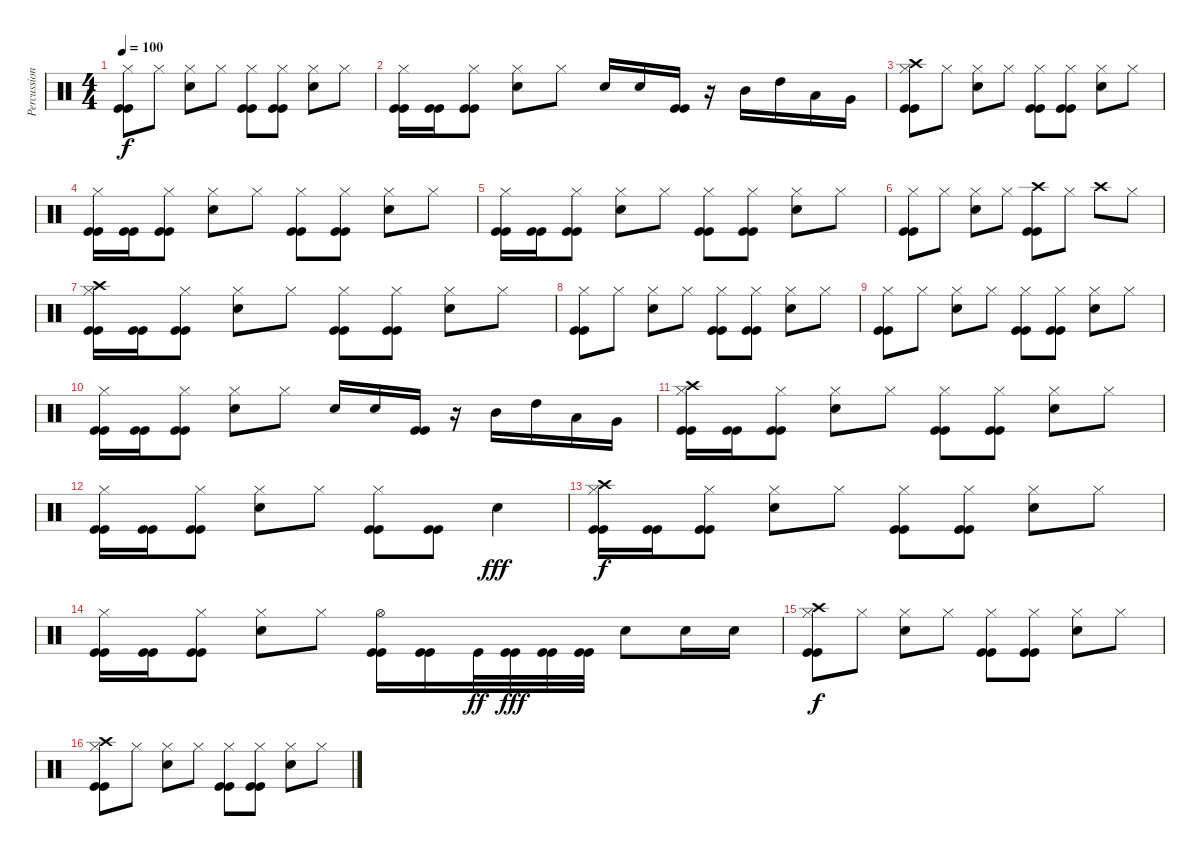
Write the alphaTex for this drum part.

\track ("Percussion" "Percussion") {instrument percussion}
\staff {score}
\articulation defaults
\ts (4 4)
\tempo 100
\clef neutral
\ks c
("Kick (hit)" "Kick (hit)" "Hi-Hat (closed)").8{dy f} "Hi-Hat (closed)".8 ("Snare (hit) 2" "Hi-Hat (closed)").8 "Hi-Hat (closed)".8 ("Kick (hit)" "Kick (hit)" "Hi-Hat (closed)").8 ("Kick (hit)" "Kick (hit)" "Hi-Hat (closed)").8 ("Snare (hit) 2" "Hi-Hat (closed)").8 "Hi-Hat (closed)".8 |
("Kick (hit)" "Kick (hit)" "Hi-Hat (closed)").16 ("Kick (hit)" "Kick (hit)").16 ("Kick (hit)" "Kick (hit)" "Hi-Hat (closed)").8 ("Snare (hit) 2" "Hi-Hat (closed)").8 "Hi-Hat (closed)".8 "Snare (hit) 2".16 "Snare (hit) 2".16 ("Kick (hit)" "Kick (hit)").16 r.16 "Mid Tom (hit)".16 "High Tom (hit)".16 "Low Tom (hit)".16 "Very Low Tom (hit)".16 |
("Kick (hit)" "Kick (hit)" "Hi-Hat (closed)" "Crash high (hit)").8 "Hi-Hat (closed)".8 ("Snare (hit) 2" "Hi-Hat (closed)").8 "Hi-Hat (closed)".8 ("Kick (hit)" "Kick (hit)" "Hi-Hat (closed)").8 ("Kick (hit)" "Kick (hit)" "Hi-Hat (closed)").8 ("Snare (hit) 2" "Hi-Hat (closed)").8 "Hi-Hat (closed)".8 |
("Kick (hit)" "Kick (hit)" "Hi-Hat (closed)").16 ("Kick (hit)" "Kick (hit)").16 ("Kick (hit)" "Kick (hit)" "Hi-Hat (closed)").8 ("Snare (hit) 2" "Hi-Hat (closed)").8 "Hi-Hat (closed)".8 ("Kick (hit)" "Kick (hit)" "Hi-Hat (closed)").8 ("Kick (hit)" "Kick (hit)" "Hi-Hat (closed)").8 ("Snare (hit) 2" "Hi-Hat (closed)").8 "Hi-Hat (closed)".8 |
("Kick (hit)" "Kick (hit)" "Hi-Hat (closed)").16 ("Kick (hit)" "Kick (hit)").16 ("Kick (hit)" "Kick (hit)" "Hi-Hat (closed)").8 ("Snare (hit) 2" "Hi-Hat (closed)").8 "Hi-Hat (closed)".8 ("Kick (hit)" "Kick (hit)" "Hi-Hat (closed)").8 ("Kick (hit)" "Kick (hit)" "Hi-Hat (closed)").8 ("Snare (hit) 2" "Hi-Hat (closed)").8 "Hi-Hat (closed)".8 |
("Kick (hit)" "Kick (hit)" "Hi-Hat (closed)").8 "Hi-Hat (closed)".8 ("Snare (hit) 2" "Hi-Hat (closed)").8 "Hi-Hat (closed)".8 ("Kick (hit)" "Kick (hit)" "Crash high (hit)").8 "Hi-Hat (closed)".8 "Crash high (hit)".8 "Hi-Hat (closed)".8 |
("Kick (hit)" "Kick (hit)" "Hi-Hat (closed)" "Crash high (hit)").16 ("Kick (hit)" "Kick (hit)").16 ("Kick (hit)" "Kick (hit)" "Hi-Hat (closed)").8 ("Snare (hit) 2" "Hi-Hat (closed)").8 "Hi-Hat (closed)".8 ("Kick (hit)" "Kick (hit)" "Hi-Hat (closed)").8 ("Kick (hit)" "Kick (hit)" "Hi-Hat (closed)").8 ("Snare (hit) 2" "Hi-Hat (closed)").8 "Hi-Hat (closed)".8 |
("Kick (hit)" "Kick (hit)" "Hi-Hat (closed)").8 "Hi-Hat (closed)".8 ("Snare (hit) 2" "Hi-Hat (closed)").8 "Hi-Hat (closed)".8 ("Kick (hit)" "Kick (hit)" "Hi-Hat (closed)").8 ("Kick (hit)" "Kick (hit)" "Hi-Hat (closed)").8 ("Snare (hit) 2" "Hi-Hat (closed)").8 "Hi-Hat (closed)".8 |
("Kick (hit)" "Kick (hit)" "Hi-Hat (closed)").8 "Hi-Hat (closed)".8 ("Snare (hit) 2" "Hi-Hat (closed)").8 "Hi-Hat (closed)".8 ("Kick (hit)" "Kick (hit)" "Hi-Hat (closed)").8 ("Kick (hit)" "Kick (hit)" "Hi-Hat (closed)").8 ("Snare (hit) 2" "Hi-Hat (closed)").8 "Hi-Hat (closed)".8 |
("Kick (hit)" "Kick (hit)" "Hi-Hat (closed)").16 ("Kick (hit)" "Kick (hit)").16 ("Kick (hit)" "Kick (hit)" "Hi-Hat (closed)").8 ("Snare (hit) 2" "Hi-Hat (closed)").8 "Hi-Hat (closed)".8 "Snare (hit) 2".16 "Snare (hit) 2".16 ("Kick (hit)" "Kick (hit)").16 r.16 "Mid Tom (hit)".16 "High Tom (hit)".16 "Low Tom (hit)".16 "Very Low Tom (hit)".16 |
("Kick (hit)" "Kick (hit)" "Hi-Hat (closed)" "Crash high (hit)").16 ("Kick (hit)" "Kick (hit)").16 ("Kick (hit)" "Kick (hit)" "Hi-Hat (closed)").8 ("Snare (hit) 2" "Hi-Hat (closed)").8 "Hi-Hat (closed)".8 ("Kick (hit)" "Kick (hit)" "Hi-Hat (closed)").8 ("Kick (hit)" "Kick (hit)" "Hi-Hat (closed)").8 ("Snare (hit) 2" "Hi-Hat (closed)").8 "Hi-Hat (closed)".8 |
("Kick (hit)" "Kick (hit)" "Hi-Hat (closed)").16 ("Kick (hit)" "Kick (hit)").16 ("Kick (hit)" "Kick (hit)" "Hi-Hat (closed)").8 ("Snare (hit) 2" "Hi-Hat (closed)").8 "Hi-Hat (closed)".8 ("Kick (hit)" "Kick (hit)" "Hi-Hat (closed)").8 ("Kick (hit)" "Kick (hit)").8 "Snare (hit) 2".4{dy fff} |
("Kick (hit)" "Kick (hit)" "Hi-Hat (closed)" "Crash high (hit)").16{dy f} ("Kick (hit)" "Kick (hit)").16 ("Kick (hit)" "Kick (hit)" "Hi-Hat (closed)").8 ("Snare (hit) 2" "Hi-Hat (closed)").8 "Hi-Hat (closed)".8 ("Kick (hit)" "Kick (hit)" "Hi-Hat (closed)").8 ("Kick (hit)" "Kick (hit)" "Hi-Hat (closed)").8 ("Snare (hit) 2" "Hi-Hat (closed)").8 "Hi-Hat (closed)".8 |
("Kick (hit)" "Kick (hit)" "Hi-Hat (closed)").16 ("Kick (hit)" "Kick (hit)").16 ("Kick (hit)" "Kick (hit)" "Hi-Hat (closed)").8 ("Snare (hit) 2" "Hi-Hat (closed)").8 "Hi-Hat (closed)".8 ("Kick (hit)" "Kick (hit)" "Hi-Hat (open)").16 ("Kick (hit)" "Kick (hit)").16 "Kick (hit)".32{dy ff} ("Kick (hit)" "Kick (hit)").32{dy fff} ("Kick (hit)" "Kick (hit)").32 ("Kick (hit)" "Kick (hit)").32 "Snare (hit) 2".8 "Snare (hit) 2".16 "Snare (hit) 2".16 |
("Kick (hit)" "Kick (hit)" "Hi-Hat (closed)" "Crash high (hit)").8{dy f} "Hi-Hat (closed)".8 ("Snare (hit) 2" "Hi-Hat (closed)").8 "Hi-Hat (closed)".8 ("Kick (hit)" "Kick (hit)" "Hi-Hat (closed)").8 ("Kick (hit)" "Kick (hit)" "Hi-Hat (closed)").8 ("Snare (hit) 2" "Hi-Hat (closed)").8 "Hi-Hat (closed)".8 |
("Kick (hit)" "Kick (hit)" "Hi-Hat (closed)" "Crash high (hit)").8 "Hi-Hat (closed)".8 ("Snare (hit) 2" "Hi-Hat (closed)").8 "Hi-Hat (closed)".8 ("Kick (hit)" "Kick (hit)" "Hi-Hat (closed)").8 ("Kick (hit)" "Kick (hit)" "Hi-Hat (closed)").8 ("Snare (hit) 2" "Hi-Hat (closed)").8 "Hi-Hat (closed)".8
